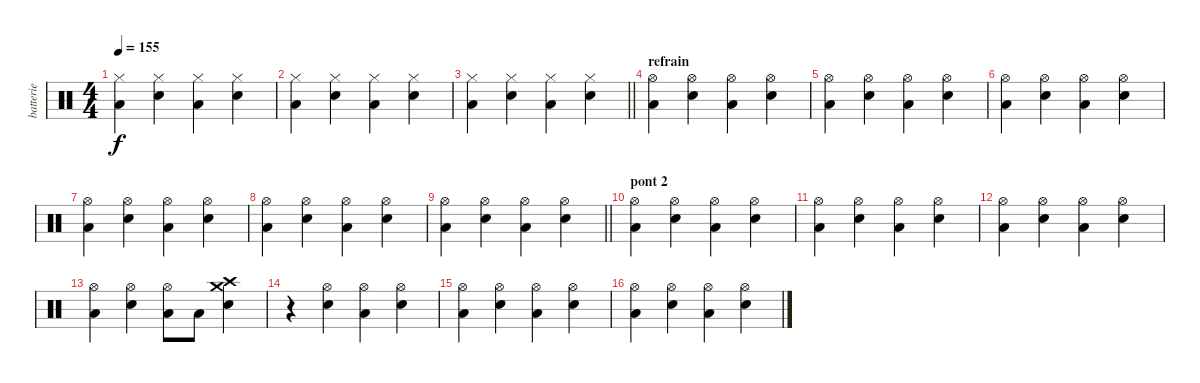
\track ("batterie" "batterie") {instrument percussion}
\staff {score}
\articulation defaults
\ts (4 4)
\tempo 155
\clef neutral
\ks c
("Hi-Hat (closed)" "Low Floor Tom (hit)").4{dy f} ("Hi-Hat (closed)" "Electric Snare (hit)").4 ("Hi-Hat (closed)" "Low Floor Tom (hit)").4 ("Hi-Hat (closed)" "Electric Snare (hit)").4 |
("Hi-Hat (closed)" "Low Floor Tom (hit)").4 ("Hi-Hat (closed)" "Electric Snare (hit)").4 ("Hi-Hat (closed)" "Low Floor Tom (hit)").4 ("Hi-Hat (closed)" "Electric Snare (hit)").4 |
\barLineRight lightlight
("Hi-Hat (closed)" "Low Floor Tom (hit)").4 ("Hi-Hat (closed)" "Electric Snare (hit)").4 ("Hi-Hat (closed)" "Low Floor Tom (hit)").4 ("Hi-Hat (closed)" "Electric Snare (hit)").4 |
\section ("" "refrain")
("Hi-Hat (open)" "Low Floor Tom (hit)").4 ("Hi-Hat (open)" "Electric Snare (hit)").4 ("Hi-Hat (open)" "Low Floor Tom (hit)").4 ("Hi-Hat (open)" "Electric Snare (hit)").4 |
("Hi-Hat (open)" "Low Floor Tom (hit)").4 ("Hi-Hat (open)" "Electric Snare (hit)").4 ("Hi-Hat (open)" "Low Floor Tom (hit)").4 ("Hi-Hat (open)" "Electric Snare (hit)").4 |
("Hi-Hat (open)" "Low Floor Tom (hit)").4 ("Hi-Hat (open)" "Electric Snare (hit)").4 ("Hi-Hat (open)" "Low Floor Tom (hit)").4 ("Hi-Hat (open)" "Electric Snare (hit)").4 |
("Hi-Hat (open)" "Low Floor Tom (hit)").4 ("Hi-Hat (open)" "Electric Snare (hit)").4 ("Hi-Hat (open)" "Low Floor Tom (hit)").4 ("Hi-Hat (open)" "Electric Snare (hit)").4 |
("Hi-Hat (open)" "Low Floor Tom (hit)").4 ("Hi-Hat (open)" "Electric Snare (hit)").4 ("Hi-Hat (open)" "Low Floor Tom (hit)").4 ("Hi-Hat (open)" "Electric Snare (hit)").4 |
\barLineRight lightlight
("Hi-Hat (open)" "Low Floor Tom (hit)").4 ("Hi-Hat (open)" "Electric Snare (hit)").4 ("Hi-Hat (open)" "Low Floor Tom (hit)").4 ("Hi-Hat (open)" "Electric Snare (hit)").4 |
\section ("" "pont 2")
("Hi-Hat (open)" "Low Floor Tom (hit)").4 ("Hi-Hat (open)" "Electric Snare (hit)").4 ("Hi-Hat (open)" "Low Floor Tom (hit)").4 ("Hi-Hat (open)" "Electric Snare (hit)").4 |
("Hi-Hat (open)" "Low Floor Tom (hit)").4 ("Hi-Hat (open)" "Electric Snare (hit)").4 ("Hi-Hat (open)" "Low Floor Tom (hit)").4 ("Hi-Hat (open)" "Electric Snare (hit)").4 |
("Hi-Hat (open)" "Low Floor Tom (hit)").4 ("Hi-Hat (open)" "Electric Snare (hit)").4 ("Hi-Hat (open)" "Low Floor Tom (hit)").4 ("Hi-Hat (open)" "Electric Snare (hit)").4 |
("Hi-Hat (open)" "Low Floor Tom (hit)").4 ("Hi-Hat (open)" "Electric Snare (hit)").4 ("Hi-Hat (open)" "Low Floor Tom (hit)").8 "Low Floor Tom (hit)".8 ("Crash medium (hit)" "Crash high (hit)" "Electric Snare (hit)").4 |
r.4 ("Hi-Hat (open)" "Electric Snare (hit)").4 ("Hi-Hat (open)" "Low Floor Tom (hit)").4 ("Hi-Hat (open)" "Electric Snare (hit)").4 |
("Hi-Hat (open)" "Low Floor Tom (hit)").4 ("Hi-Hat (open)" "Electric Snare (hit)").4 ("Hi-Hat (open)" "Low Floor Tom (hit)").4 ("Hi-Hat (open)" "Electric Snare (hit)").4 |
("Hi-Hat (open)" "Low Floor Tom (hit)").4 ("Hi-Hat (open)" "Electric Snare (hit)").4 ("Hi-Hat (open)" "Low Floor Tom (hit)").4 ("Hi-Hat (open)" "Electric Snare (hit)").4
